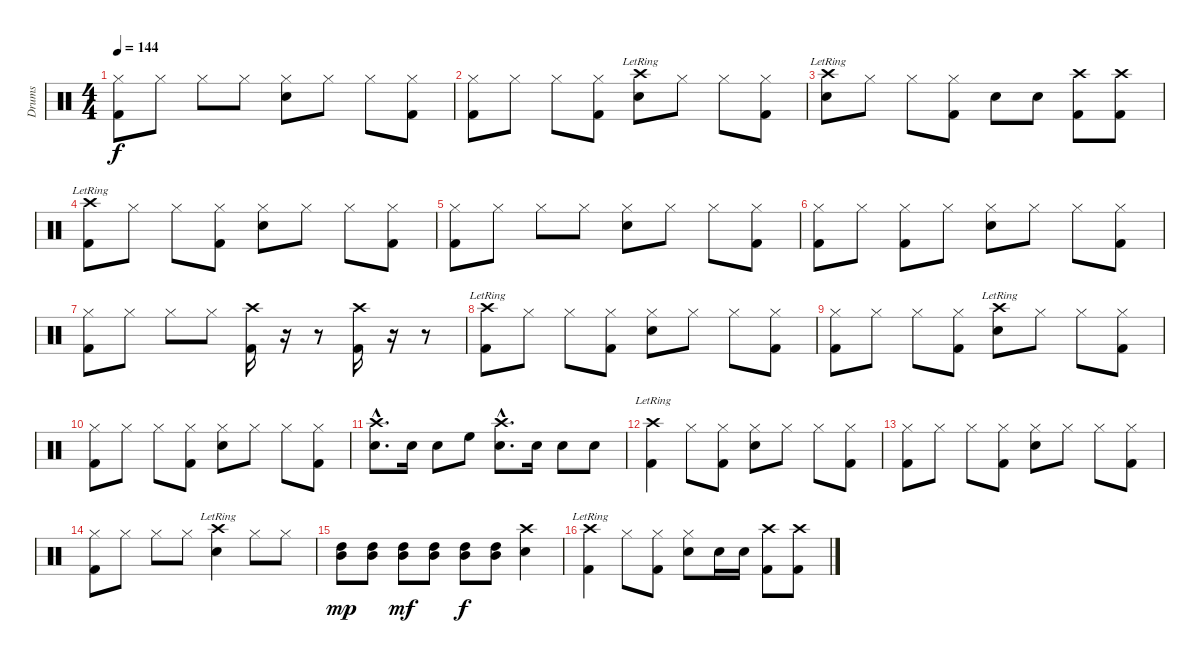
\track ("Drums" "Drums") {instrument percussion}
\staff {score}
\articulation defaults
\ts (4 4)
\tempo 144
\clef neutral
\ks c
("Hi-Hat (closed)" "Kick (hit) 2").8{dy f} "Hi-Hat (closed)".8 "Hi-Hat (closed)".8 "Hi-Hat (closed)".8 ("Hi-Hat (closed)" "Snare (hit) 2").8 "Hi-Hat (closed)".8 "Hi-Hat (closed)".8 ("Hi-Hat (closed)" "Kick (hit) 2").8 |
("Hi-Hat (closed)" "Kick (hit) 2").8 "Hi-Hat (closed)".8 "Hi-Hat (closed)".8 ("Hi-Hat (closed)" "Kick (hit) 2").8 ("Crash high (hit)"{lr} "Snare (hit) 2").8 "Hi-Hat (closed)".8 "Hi-Hat (closed)".8 ("Hi-Hat (closed)" "Kick (hit) 2").8 |
("Crash high (hit)"{lr} "Snare (hit) 2").8 "Hi-Hat (closed)".8 "Hi-Hat (closed)".8 ("Hi-Hat (closed)" "Kick (hit) 2").8 "Snare (hit) 2".8 "Snare (hit) 2".8 ("Crash high (hit)" "Kick (hit) 2").8 ("Crash high (hit)" "Kick (hit) 2").8 |
("Crash high (hit)"{lr} "Kick (hit) 2").8 "Hi-Hat (closed)".8 "Hi-Hat (closed)".8 ("Hi-Hat (closed)" "Kick (hit) 2").8 ("Hi-Hat (closed)" "Snare (hit) 2").8 "Hi-Hat (closed)".8 "Hi-Hat (closed)".8 ("Hi-Hat (closed)" "Kick (hit) 2").8 |
("Hi-Hat (closed)" "Kick (hit) 2").8 "Hi-Hat (closed)".8 "Hi-Hat (closed)".8 "Hi-Hat (closed)".8 ("Hi-Hat (closed)" "Snare (hit) 2").8 "Hi-Hat (closed)".8 "Hi-Hat (closed)".8 ("Hi-Hat (closed)" "Kick (hit) 2").8 |
("Hi-Hat (closed)" "Kick (hit) 2").8 "Hi-Hat (closed)".8 ("Hi-Hat (closed)" "Kick (hit) 2").8 "Hi-Hat (closed)".8 ("Hi-Hat (closed)" "Snare (hit) 2").8 "Hi-Hat (closed)".8 "Hi-Hat (closed)".8 ("Hi-Hat (closed)" "Kick (hit) 2").8 |
("Hi-Hat (closed)" "Kick (hit) 2").8 "Hi-Hat (closed)".8 "Hi-Hat (closed)".8 "Hi-Hat (closed)".8 ("Crash high (hit)" "Kick (hit) 2").16 r.16 r.8 ("Crash high (hit)" "Kick (hit) 2").16 r.16 r.8 |
("Crash high (hit)"{lr} "Kick (hit) 2").8 "Hi-Hat (closed)".8 "Hi-Hat (closed)".8 ("Hi-Hat (closed)" "Kick (hit) 2").8 ("Hi-Hat (closed)" "Snare (hit) 2").8 "Hi-Hat (closed)".8 "Hi-Hat (closed)".8 ("Hi-Hat (closed)" "Kick (hit) 2").8 |
("Hi-Hat (closed)" "Kick (hit) 2").8 "Hi-Hat (closed)".8 "Hi-Hat (closed)".8 ("Hi-Hat (closed)" "Kick (hit) 2").8 ("Crash high (hit)"{lr} "Snare (hit) 2").8 "Hi-Hat (closed)".8 "Hi-Hat (closed)".8 ("Hi-Hat (closed)" "Kick (hit) 2").8 |
("Hi-Hat (closed)" "Kick (hit) 2").8 "Hi-Hat (closed)".8 "Hi-Hat (closed)".8 ("Hi-Hat (closed)" "Kick (hit) 2").8 ("Hi-Hat (closed)" "Snare (hit) 2").8 "Hi-Hat (closed)".8 "Hi-Hat (closed)".8 ("Hi-Hat (closed)" "Kick (hit) 2").8 |
("Crash high (hit)"{hac} "Snare (hit) 2"{hac}).8{d} "Snare (hit) 2".16 "Snare (hit) 2".8 "High Floor Tom (hit)".8 ("Crash high (hit)"{hac} "Snare (hit) 2"{hac}).8{d} "Snare (hit) 2".16 "Snare (hit) 2".8 "Snare (hit) 2".8 |
("Crash high (hit)"{lr} "Kick (hit) 2").4 "Hi-Hat (closed)".8 ("Hi-Hat (closed)" "Kick (hit) 2").8 ("Hi-Hat (closed)" "Snare (hit) 2").8 "Hi-Hat (closed)".8 "Hi-Hat (closed)".8 ("Hi-Hat (closed)" "Kick (hit) 2").8 |
("Hi-Hat (closed)" "Kick (hit) 2").8 "Hi-Hat (closed)".8 "Hi-Hat (closed)".8 ("Hi-Hat (closed)" "Kick (hit) 2").8 ("Hi-Hat (closed)" "Snare (hit) 2").8 "Hi-Hat (closed)".8 "Hi-Hat (closed)".8 ("Hi-Hat (closed)" "Kick (hit) 2").8 |
("Hi-Hat (closed)" "Kick (hit) 2").8 "Hi-Hat (closed)".8 "Hi-Hat (closed)".8 "Hi-Hat (closed)".8 ("Crash high (hit)"{lr} "Snare (hit) 2").4 "Hi-Hat (closed)".8 "Hi-Hat (closed)".8 |
("High Tom (hit)" "Mid Tom (hit)").8{dy mp} ("High Tom (hit)" "Mid Tom (hit)").8 ("High Tom (hit)" "Mid Tom (hit)").8{dy mf} ("High Tom (hit)" "Mid Tom (hit)").8 ("High Tom (hit)" "Mid Tom (hit)").8{dy f} ("High Tom (hit)" "Mid Tom (hit)").8 ("Crash high (hit)" "Snare (hit) 2").4 |
("Crash high (hit)"{lr} "Kick (hit) 2").4 "Hi-Hat (closed)".8 ("Hi-Hat (closed)" "Kick (hit) 2").8 ("Hi-Hat (closed)" "Snare (hit) 2").8 "Snare (hit) 2".16 "Snare (hit) 2".16 ("Crash high (hit)" "Kick (hit) 2").8 ("Crash high (hit)" "Kick (hit) 2").8
